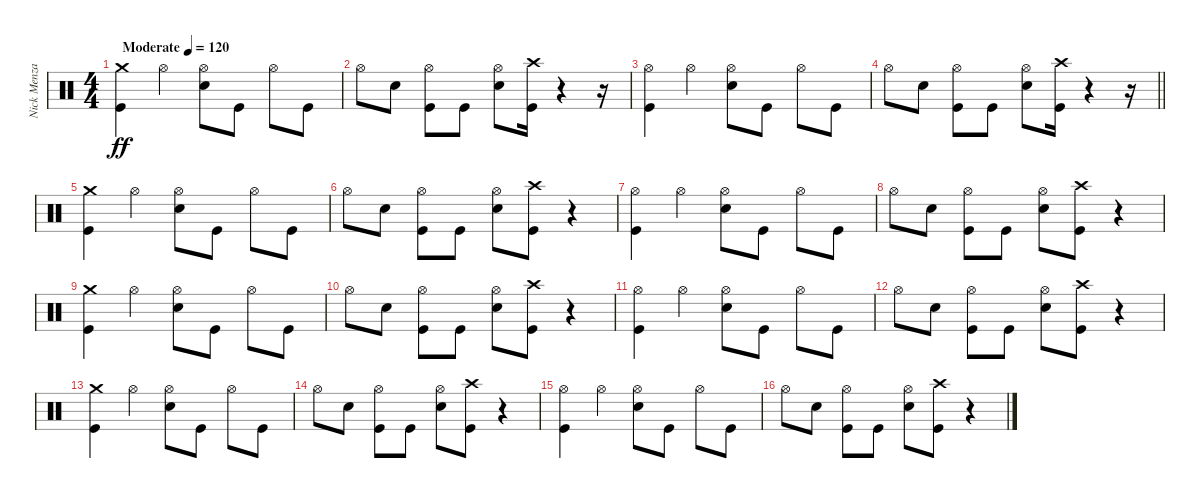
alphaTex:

\track ("Nick Menza (Drums)" "Nick Menza") {instrument percussion}
\staff {score}
\articulation defaults
\ts (4 4)
\tempo (120 "Moderate")
\clef neutral
\ks c
("Kick (hit)" "Crash medium (hit)").4{dy ff} "Hi-Hat (open)".4 ("Hi-Hat (open)" "Snare (hit) 2").8 "Kick (hit)".8 "Hi-Hat (open)".8 "Kick (hit)".8 |
"Hi-Hat (open)".8 "Snare (hit) 2".8 ("Hi-Hat (open)" "Kick (hit)").8 "Kick (hit)".8 ("Hi-Hat (open)" "Snare (hit) 2").8 ("Kick (hit)" "Crash high (hit)").16 r.4 r.16 |
("Hi-Hat (open)" "Kick (hit)").4 "Hi-Hat (open)".4 ("Hi-Hat (open)" "Snare (hit) 2").8 "Kick (hit)".8 "Hi-Hat (open)".8 "Kick (hit)".8 |
\barLineRight lightlight "Hi-Hat (open)".8 "Snare (hit) 2".8
("Hi-Hat (open)" "Kick (hit)").8 "Kick (hit)".8 ("Hi-Hat (open)" "Snare (hit) 2").8 ("Kick (hit)" "Crash high (hit)").16 r.4 r.16 |
("Kick (hit)" "Crash medium (hit)").4 "Hi-Hat (open)".4 ("Hi-Hat (open)" "Snare (hit) 2").8 "Kick (hit)".8 "Hi-Hat (open)".8 "Kick (hit)".8 |
"Hi-Hat (open)".8 "Snare (hit) 2".8 ("Hi-Hat (open)" "Kick (hit)").8 "Kick (hit)".8 ("Hi-Hat (open)" "Snare (hit) 2").8 ("Kick (hit)" "Crash high (hit)").8 r.4 |
("Hi-Hat (open)" "Kick (hit)").4 "Hi-Hat (open)".4 ("Hi-Hat (open)" "Snare (hit) 2").8 "Kick (hit)".8 "Hi-Hat (open)".8 "Kick (hit)".8 |
"Hi-Hat (open)".8 "Snare (hit) 2".8 ("Hi-Hat (open)" "Kick (hit)").8 "Kick (hit)".8 ("Hi-Hat (open)" "Snare (hit) 2").8 ("Kick (hit)" "Crash high (hit)").8 r.4 |
("Kick (hit)" "Crash medium (hit)").4 "Hi-Hat (open)".4 ("Hi-Hat (open)" "Snare (hit) 2").8 "Kick (hit)".8 "Hi-Hat (open)".8 "Kick (hit)".8 |
"Hi-Hat (open)".8 "Snare (hit) 2".8 ("Hi-Hat (open)" "Kick (hit)").8 "Kick (hit)".8 ("Hi-Hat (open)" "Snare (hit) 2").8 ("Kick (hit)" "Crash high (hit)").8 r.4 |
("Hi-Hat (open)" "Kick (hit)").4 "Hi-Hat (open)".4 ("Hi-Hat (open)" "Snare (hit) 2").8 "Kick (hit)".8 "Hi-Hat (open)".8 "Kick (hit)".8 |
"Hi-Hat (open)".8 "Snare (hit) 2".8 ("Hi-Hat (open)" "Kick (hit)").8 "Kick (hit)".8 ("Hi-Hat (open)" "Snare (hit) 2").8 ("Kick (hit)" "Crash high (hit)").8 r.4 |
("Kick (hit)" "Crash medium (hit)").4 "Hi-Hat (open)".4 ("Hi-Hat (open)" "Snare (hit) 2").8 "Kick (hit)".8 "Hi-Hat (open)".8 "Kick (hit)".8 |
"Hi-Hat (open)".8 "Snare (hit) 2".8 ("Hi-Hat (open)" "Kick (hit)").8 "Kick (hit)".8 ("Hi-Hat (open)" "Snare (hit) 2").8 ("Kick (hit)" "Crash high (hit)").8 r.4 |
("Hi-Hat (open)" "Kick (hit)").4 "Hi-Hat (open)".4 ("Hi-Hat (open)" "Snare (hit) 2").8 "Kick (hit)".8 "Hi-Hat (open)".8 "Kick (hit)".8 |
"Hi-Hat (open)".8 "Snare (hit) 2".8 ("Hi-Hat (open)" "Kick (hit)").8 "Kick (hit)".8 ("Hi-Hat (open)" "Snare (hit) 2").8 ("Kick (hit)" "Crash high (hit)").8 r.4
